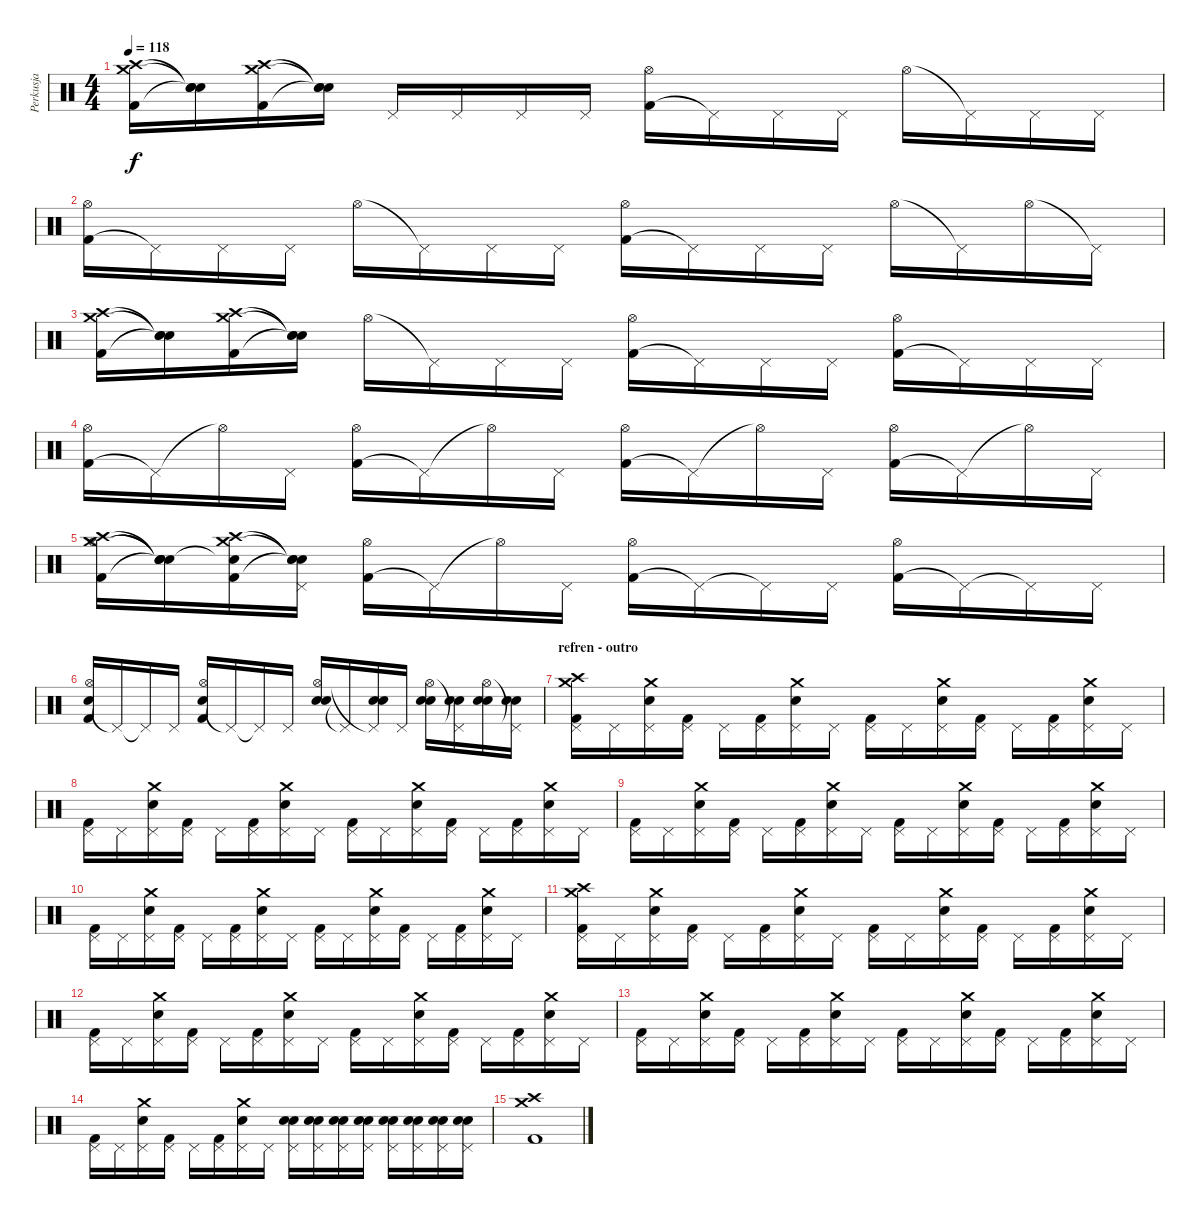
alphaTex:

\track ("Perkusja" "Perkusja") {instrument percussion}
\staff {score}
\articulation defaults
\ts (4 4)
\tempo 118
\clef neutral
\ks c
("Crash medium (hit)" "Crash high (hit)" "Kick (hit) 2").16{dy f} ("Snare (hit)"{t} "Snare (hit)"{t} "Snare (hit)"{t}).16 ("Crash medium (hit)" "Crash high (hit)" "Kick (hit) 2").16 ("Snare (hit)"{t} "Snare (hit)"{t} "Snare (hit)"{t}).16 "Pedal Hi-Hat (hit)".16 "Pedal Hi-Hat (hit)".16 "Pedal Hi-Hat (hit)".16 "Pedal Hi-Hat (hit)".16 ("Kick (hit) 2" "Hi-Hat (open)").16 "Pedal Hi-Hat (hit)"{t}.16 "Pedal Hi-Hat (hit)".16 "Pedal Hi-Hat (hit)".16 "Hi-Hat (open)".16 "Pedal Hi-Hat (hit)"{t}.16 "Pedal Hi-Hat (hit)".16 "Pedal Hi-Hat (hit)".16 |
("Kick (hit) 2" "Hi-Hat (open)").16 "Pedal Hi-Hat (hit)"{t}.16 "Pedal Hi-Hat (hit)".16 "Pedal Hi-Hat (hit)".16 "Hi-Hat (open)".16 "Pedal Hi-Hat (hit)"{t}.16 "Pedal Hi-Hat (hit)".16 "Pedal Hi-Hat (hit)".16 ("Kick (hit) 2" "Hi-Hat (open)").16 "Pedal Hi-Hat (hit)"{t}.16 "Pedal Hi-Hat (hit)".16 "Pedal Hi-Hat (hit)".16 "Hi-Hat (open)".16 "Pedal Hi-Hat (hit)"{t}.16 "Hi-Hat (open)".16 "Pedal Hi-Hat (hit)"{t}.16 |
("Crash medium (hit)" "Crash high (hit)" "Kick (hit) 2").16 ("Snare (hit)"{t} "Snare (hit)"{t} "Snare (hit)"{t}).16 ("Crash medium (hit)" "Crash high (hit)" "Kick (hit) 2").16 ("Snare (hit)"{t} "Snare (hit)"{t} "Snare (hit)"{t}).16 "Hi-Hat (open)".16 "Pedal Hi-Hat (hit)"{t}.16 "Pedal Hi-Hat (hit)".16 "Pedal Hi-Hat (hit)".16 ("Kick (hit) 2" "Hi-Hat (open)").16 "Pedal Hi-Hat (hit)"{t}.16 "Pedal Hi-Hat (hit)".16 "Pedal Hi-Hat (hit)".16 ("Kick (hit) 2" "Hi-Hat (open)").16 "Pedal Hi-Hat (hit)"{t}.16 "Pedal Hi-Hat (hit)".16 "Pedal Hi-Hat (hit)".16 |
("Kick (hit) 2" "Hi-Hat (open)").16 "Pedal Hi-Hat (hit)"{t}.16 "Hi-Hat (open)"{t}.16 "Pedal Hi-Hat (hit)".16 ("Kick (hit) 2" "Hi-Hat (open)").16 "Pedal Hi-Hat (hit)"{t}.16 "Hi-Hat (open)"{t}.16 "Pedal Hi-Hat (hit)".16 ("Kick (hit) 2" "Hi-Hat (open)").16 "Pedal Hi-Hat (hit)"{t}.16 "Hi-Hat (open)"{t}.16 "Pedal Hi-Hat (hit)".16 ("Kick (hit) 2" "Hi-Hat (open)").16 "Pedal Hi-Hat (hit)"{t}.16 "Hi-Hat (open)"{t}.16 "Pedal Hi-Hat (hit)".16 |
("Crash medium (hit)" "Crash high (hit)" "Kick (hit) 2" "Hi-Hat (open)").16 ("Snare (hit)"{t} "Snare (hit)"{t} "Snare (hit)"{t} "Snare (hit)"{t}).16 ("Crash medium (hit)" "Crash high (hit)" "Kick (hit) 2" "Snare (hit)"{t}).16 ("Snare (hit)"{t} "Snare (hit)"{t} "Snare (hit)"{t} "Pedal Hi-Hat (hit)").16 ("Kick (hit) 2" "Hi-Hat (open)").16 "Pedal Hi-Hat (hit)"{t}.16 "Hi-Hat (open)"{t}.16 "Pedal Hi-Hat (hit)".16 ("Kick (hit) 2" "Hi-Hat (open)").16 "Pedal Hi-Hat (hit)"{t}.16 "Pedal Hi-Hat (hit)"{t}.16 "Pedal Hi-Hat (hit)".16 ("Kick (hit) 2" "Hi-Hat (open)").16 "Pedal Hi-Hat (hit)"{t}.16 "Pedal Hi-Hat (hit)"{t}.16 "Pedal Hi-Hat (hit)".16 |
("Electric Snare (hit)" "Kick (hit) 2" "Hi-Hat (open)").16 "Pedal Hi-Hat (hit)"{t}.16 "Pedal Hi-Hat (hit)"{t}.16 "Pedal Hi-Hat (hit)".16 ("Electric Snare (hit)" "Kick (hit) 2" "Hi-Hat (open)").16 "Pedal Hi-Hat (hit)"{t}.16 "Pedal Hi-Hat (hit)"{t}.16 "Pedal Hi-Hat (hit)".16 ("Electric Snare (hit)" "Snare (hit) 2" "Hi-Hat (open)").16 "Pedal Hi-Hat (hit)"{t}.16 ("Electric Snare (hit)" "Snare (hit) 2" "Pedal Hi-Hat (hit)"{t}).16 "Pedal Hi-Hat (hit)".16 ("Electric Snare (hit)" "Snare (hit) 2" "Hi-Hat (open)").16 ("Electric Snare (hit)" "Snare (hit) 2" "Pedal Hi-Hat (hit)"{t}).16 ("Electric Snare (hit)" "Snare (hit) 2" "Hi-Hat (open)").16 ("Electric Snare (hit)" "Snare (hit) 2" "Pedal Hi-Hat (hit)"{t}).16 |
\section ("" "refren - outro")
("Crash medium (hit)" "Crash high (hit)" "Kick (hit) 2" "Pedal Hi-Hat (hit)").16 "Pedal Hi-Hat (hit)".16 ("Electric Snare (hit)" "Crash medium (hit)" "Pedal Hi-Hat (hit)").16 ("Kick (hit) 2" "Pedal Hi-Hat (hit)").16 "Pedal Hi-Hat (hit)".16 ("Kick (hit) 2" "Pedal Hi-Hat (hit)").16 ("Electric Snare (hit)" "Crash medium (hit)" "Pedal Hi-Hat (hit)").16 "Pedal Hi-Hat (hit)".16 ("Kick (hit) 2" "Pedal Hi-Hat (hit)").16 "Pedal Hi-Hat (hit)".16 ("Electric Snare (hit)" "Crash medium (hit)" "Pedal Hi-Hat (hit)").16 ("Kick (hit) 2" "Pedal Hi-Hat (hit)").16 "Pedal Hi-Hat (hit)".16 ("Kick (hit) 2" "Pedal Hi-Hat (hit)").16 ("Electric Snare (hit)" "Crash medium (hit)" "Pedal Hi-Hat (hit)").16 "Pedal Hi-Hat (hit)".16 |
("Kick (hit) 2" "Pedal Hi-Hat (hit)").16 "Pedal Hi-Hat (hit)".16 ("Electric Snare (hit)" "Crash medium (hit)" "Pedal Hi-Hat (hit)").16 ("Kick (hit) 2" "Pedal Hi-Hat (hit)").16 "Pedal Hi-Hat (hit)".16 ("Kick (hit) 2" "Pedal Hi-Hat (hit)").16 ("Electric Snare (hit)" "Crash medium (hit)" "Pedal Hi-Hat (hit)").16 "Pedal Hi-Hat (hit)".16 ("Kick (hit) 2" "Pedal Hi-Hat (hit)").16 "Pedal Hi-Hat (hit)".16 ("Electric Snare (hit)" "Crash medium (hit)" "Pedal Hi-Hat (hit)").16 ("Kick (hit) 2" "Pedal Hi-Hat (hit)").16 "Pedal Hi-Hat (hit)".16 ("Kick (hit) 2" "Pedal Hi-Hat (hit)").16 ("Electric Snare (hit)" "Crash medium (hit)" "Pedal Hi-Hat (hit)").16 "Pedal Hi-Hat (hit)".16 |
("Kick (hit) 2" "Pedal Hi-Hat (hit)").16 "Pedal Hi-Hat (hit)".16 ("Electric Snare (hit)" "Crash medium (hit)" "Pedal Hi-Hat (hit)").16 ("Kick (hit) 2" "Pedal Hi-Hat (hit)").16 "Pedal Hi-Hat (hit)".16 ("Kick (hit) 2" "Pedal Hi-Hat (hit)").16 ("Electric Snare (hit)" "Crash medium (hit)" "Pedal Hi-Hat (hit)").16 "Pedal Hi-Hat (hit)".16 ("Kick (hit) 2" "Pedal Hi-Hat (hit)").16 "Pedal Hi-Hat (hit)".16 ("Electric Snare (hit)" "Crash medium (hit)" "Pedal Hi-Hat (hit)").16 ("Kick (hit) 2" "Pedal Hi-Hat (hit)").16 "Pedal Hi-Hat (hit)".16 ("Kick (hit) 2" "Pedal Hi-Hat (hit)").16 ("Electric Snare (hit)" "Crash medium (hit)" "Pedal Hi-Hat (hit)").16 "Pedal Hi-Hat (hit)".16 |
("Kick (hit) 2" "Pedal Hi-Hat (hit)").16 "Pedal Hi-Hat (hit)".16 ("Electric Snare (hit)" "Crash medium (hit)" "Pedal Hi-Hat (hit)").16 ("Kick (hit) 2" "Pedal Hi-Hat (hit)").16 "Pedal Hi-Hat (hit)".16 ("Kick (hit) 2" "Pedal Hi-Hat (hit)").16 ("Electric Snare (hit)" "Crash medium (hit)" "Pedal Hi-Hat (hit)").16 "Pedal Hi-Hat (hit)".16 ("Kick (hit) 2" "Pedal Hi-Hat (hit)").16 "Pedal Hi-Hat (hit)".16 ("Electric Snare (hit)" "Crash medium (hit)" "Pedal Hi-Hat (hit)").16 ("Kick (hit) 2" "Pedal Hi-Hat (hit)").16 "Pedal Hi-Hat (hit)".16 ("Kick (hit) 2" "Pedal Hi-Hat (hit)").16 ("Electric Snare (hit)" "Crash medium (hit)" "Pedal Hi-Hat (hit)").16 "Pedal Hi-Hat (hit)".16 |
("Crash medium (hit)" "Crash high (hit)" "Kick (hit) 2" "Pedal Hi-Hat (hit)").16 "Pedal Hi-Hat (hit)".16 ("Electric Snare (hit)" "Crash medium (hit)" "Pedal Hi-Hat (hit)").16 ("Kick (hit) 2" "Pedal Hi-Hat (hit)").16 "Pedal Hi-Hat (hit)".16 ("Kick (hit) 2" "Pedal Hi-Hat (hit)").16 ("Electric Snare (hit)" "Crash medium (hit)" "Pedal Hi-Hat (hit)").16 "Pedal Hi-Hat (hit)".16 ("Kick (hit) 2" "Pedal Hi-Hat (hit)").16 "Pedal Hi-Hat (hit)".16 ("Electric Snare (hit)" "Crash medium (hit)" "Pedal Hi-Hat (hit)").16 ("Kick (hit) 2" "Pedal Hi-Hat (hit)").16 "Pedal Hi-Hat (hit)".16 ("Kick (hit) 2" "Pedal Hi-Hat (hit)").16 ("Electric Snare (hit)" "Crash medium (hit)" "Pedal Hi-Hat (hit)").16 "Pedal Hi-Hat (hit)".16 |
("Kick (hit) 2" "Pedal Hi-Hat (hit)").16 "Pedal Hi-Hat (hit)".16 ("Electric Snare (hit)" "Crash medium (hit)" "Pedal Hi-Hat (hit)").16 ("Kick (hit) 2" "Pedal Hi-Hat (hit)").16 "Pedal Hi-Hat (hit)".16 ("Kick (hit) 2" "Pedal Hi-Hat (hit)").16 ("Electric Snare (hit)" "Crash medium (hit)" "Pedal Hi-Hat (hit)").16 "Pedal Hi-Hat (hit)".16 ("Kick (hit) 2" "Pedal Hi-Hat (hit)").16 "Pedal Hi-Hat (hit)".16 ("Electric Snare (hit)" "Crash medium (hit)" "Pedal Hi-Hat (hit)").16 ("Kick (hit) 2" "Pedal Hi-Hat (hit)").16 "Pedal Hi-Hat (hit)".16 ("Kick (hit) 2" "Pedal Hi-Hat (hit)").16 ("Electric Snare (hit)" "Crash medium (hit)" "Pedal Hi-Hat (hit)").16 "Pedal Hi-Hat (hit)".16 |
("Kick (hit) 2" "Pedal Hi-Hat (hit)").16 "Pedal Hi-Hat (hit)".16 ("Electric Snare (hit)" "Crash medium (hit)" "Pedal Hi-Hat (hit)").16 ("Kick (hit) 2" "Pedal Hi-Hat (hit)").16 "Pedal Hi-Hat (hit)".16 ("Kick (hit) 2" "Pedal Hi-Hat (hit)").16 ("Electric Snare (hit)" "Crash medium (hit)" "Pedal Hi-Hat (hit)").16 "Pedal Hi-Hat (hit)".16 ("Kick (hit) 2" "Pedal Hi-Hat (hit)").16 "Pedal Hi-Hat (hit)".16 ("Electric Snare (hit)" "Crash medium (hit)" "Pedal Hi-Hat (hit)").16 ("Kick (hit) 2" "Pedal Hi-Hat (hit)").16 "Pedal Hi-Hat (hit)".16 ("Kick (hit) 2" "Pedal Hi-Hat (hit)").16 ("Electric Snare (hit)" "Crash medium (hit)" "Pedal Hi-Hat (hit)").16 "Pedal Hi-Hat (hit)".16 |
("Kick (hit) 2" "Pedal Hi-Hat (hit)").16 "Pedal Hi-Hat (hit)".16 ("Electric Snare (hit)" "Crash medium (hit)" "Pedal Hi-Hat (hit)").16 ("Kick (hit) 2" "Pedal Hi-Hat (hit)").16 "Pedal Hi-Hat (hit)".16 ("Kick (hit) 2" "Pedal Hi-Hat (hit)").16 ("Electric Snare (hit)" "Crash medium (hit)" "Pedal Hi-Hat (hit)").16 "Pedal Hi-Hat (hit)".16 ("Electric Snare (hit)" "Snare (hit) 2" "Pedal Hi-Hat (hit)").16 ("Electric Snare (hit)" "Snare (hit) 2" "Pedal Hi-Hat (hit)").16 ("Electric Snare (hit)" "Snare (hit) 2" "Pedal Hi-Hat (hit)").16 ("Electric Snare (hit)" "Snare (hit) 2" "Pedal Hi-Hat (hit)").16 ("Electric Snare (hit)" "Snare (hit) 2" "Pedal Hi-Hat (hit)").16 ("Electric Snare (hit)" "Snare (hit) 2" "Pedal Hi-Hat (hit)").16 ("Electric Snare (hit)" "Snare (hit) 2" "Pedal Hi-Hat (hit)").16 ("Electric Snare (hit)" "Snare (hit) 2" "Pedal Hi-Hat (hit)").16 |
("Crash medium (hit)" "Crash high (hit)" "Kick (hit) 2").1
